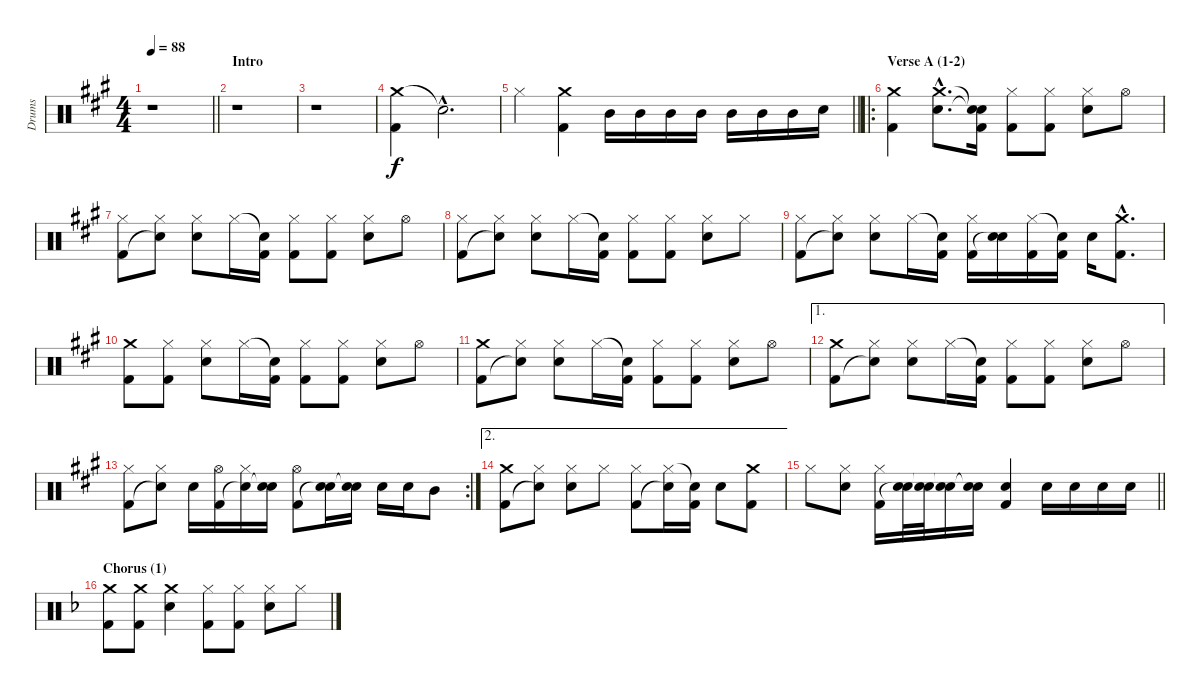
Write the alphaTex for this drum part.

\track ("Drums" "Drums") {instrument percussion}
\staff {score}
\articulation defaults
\ts (4 4)
\tempo 88
\clef neutral
\barLineRight lightlight
\ks f#minor
r.1{dy f} |
\section ("" "Intro")
r.1 |
r.1 |
("Crash medium (hit)" "Kick (hit) 2").4 "Snare (hit)"{hac t}.2{d} |
\barLineRight lightlight "Hi-Hat (closed)".4
("Crash medium (hit)" "Kick (hit) 2").4 "Mid Tom (hit)".16 "Mid Tom (hit)".16 "Mid Tom (hit)".16 "Mid Tom (hit)".16 "Mid Tom (hit)".16 "Mid Tom (hit)".16 "Mid Tom (hit)".16 "Electric Snare (hit)".16 |
\ro
\section ("" "Verse A (1-2)")
("Crash medium (hit)" "Kick (hit) 2").4 ("Crash medium (hit)"{hac} "Electric Snare (hit)"{hac}).8{d} ("Snare (hit)"{t} "Snare (hit)"{t} "Kick (hit) 2").16 ("Hi-Hat (closed)" "Kick (hit) 2").8 ("Hi-Hat (closed)" "Kick (hit) 2").8 ("Hi-Hat (closed)" "Electric Snare (hit)").8 "Hi-Hat (open)".8 |
("Hi-Hat (closed)" "Kick (hit) 2").8 ("Hi-Hat (closed)" "Snare (hit)"{t}).8 ("Hi-Hat (closed)" "Electric Snare (hit)").8 "Hi-Hat (closed)".16 ("Snare (hit)"{t} "Kick (hit) 2").16 ("Hi-Hat (closed)" "Kick (hit) 2").8 ("Hi-Hat (closed)" "Kick (hit) 2").8 ("Hi-Hat (closed)" "Electric Snare (hit)").8 "Hi-Hat (open)".8 |
("Hi-Hat (closed)" "Kick (hit) 2").8 ("Hi-Hat (closed)" "Snare (hit)"{t}).8 ("Hi-Hat (closed)" "Electric Snare (hit)").8 "Hi-Hat (closed)".16 ("Snare (hit)"{t} "Kick (hit) 2").16 ("Hi-Hat (closed)" "Kick (hit) 2").8 ("Hi-Hat (closed)" "Kick (hit) 2").8 ("Hi-Hat (closed)" "Electric Snare (hit)").8 "Hi-Hat (closed)".8 |
("Hi-Hat (closed)" "Kick (hit) 2").8 ("Hi-Hat (closed)" "Snare (hit)"{t}).8 ("Hi-Hat (closed)" "Electric Snare (hit)").8 "Hi-Hat (closed)".16 ("Snare (hit)"{t} "Kick (hit) 2").16 ("Hi-Hat (closed)" "Kick (hit) 2").16 ("Electric Snare (hit)" "Snare (hit)"{t}).16 ("Hi-Hat (closed)" "Kick (hit) 2").16 ("Snare (hit)"{t} "Kick (hit) 2").16 "Electric Snare (hit)".16 ("Crash medium (hit)"{hac} "Kick (hit) 2"{hac}).8{d} |
("Crash medium (hit)" "Kick (hit) 2").8 ("Hi-Hat (closed)" "Kick (hit) 2").8 ("Hi-Hat (closed)" "Electric Snare (hit)").8 "Hi-Hat (closed)".16 ("Snare (hit)"{t} "Kick (hit) 2").16 ("Hi-Hat (closed)" "Kick (hit) 2").8 ("Hi-Hat (closed)" "Kick (hit) 2").8 ("Hi-Hat (closed)" "Electric Snare (hit)").8 "Hi-Hat (open)".8 |
("Crash medium (hit)" "Kick (hit) 2").8 ("Hi-Hat (closed)" "Snare (hit)"{t}).8 ("Hi-Hat (closed)" "Electric Snare (hit)").8 "Hi-Hat (closed)".16 ("Snare (hit)"{t} "Kick (hit) 2").16 ("Hi-Hat (closed)" "Kick (hit) 2").8 ("Hi-Hat (closed)" "Kick (hit) 2").8 ("Hi-Hat (closed)" "Electric Snare (hit)").8 "Hi-Hat (open)".8 |
\ae 1
("Crash medium (hit)" "Kick (hit) 2").8 ("Hi-Hat (closed)" "Snare (hit)"{t}).8 ("Hi-Hat (closed)" "Electric Snare (hit)").8 "Hi-Hat (closed)".16 ("Snare (hit)"{t} "Kick (hit) 2").16 ("Hi-Hat (closed)" "Kick (hit) 2").8 ("Hi-Hat (closed)" "Kick (hit) 2").8 ("Hi-Hat (closed)" "Electric Snare (hit)").8 "Hi-Hat (open)".8 |
\rc 2
("Hi-Hat (closed)" "Kick (hit) 2").8 ("Hi-Hat (closed)" "Snare (hit)"{t}).8 "Electric Snare (hit)".16 ("Hi-Hat (open)" "Kick (hit) 2").16 ("Hi-Hat (closed)" "Snare (hit)"{t}).16 ("Electric Snare (hit)" "Snare (hit)"{t}).16 ("Hi-Hat (open)" "Kick (hit) 2").8 ("Electric Snare (hit)" "Snare (hit)"{t}).16 ("Electric Snare (hit)" "Snare (hit)"{t}).16 "Electric Snare (hit)".16 "Electric Snare (hit)".16 "Mid Tom (hit)".8 |
\ae 2
("Crash medium (hit)" "Kick (hit) 2").8 ("Hi-Hat (closed)" "Snare (hit)"{t}).8 ("Hi-Hat (closed)" "Electric Snare (hit)").8 "Hi-Hat (closed)".8 ("Hi-Hat (closed)" "Kick (hit) 2").8 ("Hi-Hat (closed)" "Snare (hit)"{t}).16 ("Snare (hit)"{t} "Kick (hit) 2").16 "Electric Snare (hit)".8 ("Crash medium (hit)" "Kick (hit) 2").8 |
\barLineRight lightlight "Hi-Hat (closed)".8
("Hi-Hat (closed)" "Electric Snare (hit)").8 ("Hi-Hat (closed)" "Kick (hit) 2").16 ("Electric Snare (hit)" "Snare (hit)"{t}).32 ("Electric Snare (hit)" "Snare (hit)"{t}).32 ("Electric Snare (hit)" "Snare (hit)"{t}).16 ("Electric Snare (hit)" "Snare (hit)"{t}).16 ("Electric Snare (hit)" "Kick (hit) 2").4 "Electric Snare (hit)".16 "Electric Snare (hit)".16 "Electric Snare (hit)".16 "Electric Snare (hit)".16 |
\section ("" "Chorus (1)")
\ks dminor
("Crash medium (hit)" "Kick (hit) 2").8 ("Crash medium (hit)" "Kick (hit) 2").8 ("Crash medium (hit)" "Electric Snare (hit)").4 ("Hi-Hat (closed)" "Kick (hit) 2").8 ("Hi-Hat (closed)" "Kick (hit) 2").8 ("Hi-Hat (closed)" "Electric Snare (hit)").8 "Hi-Hat (closed)".8
